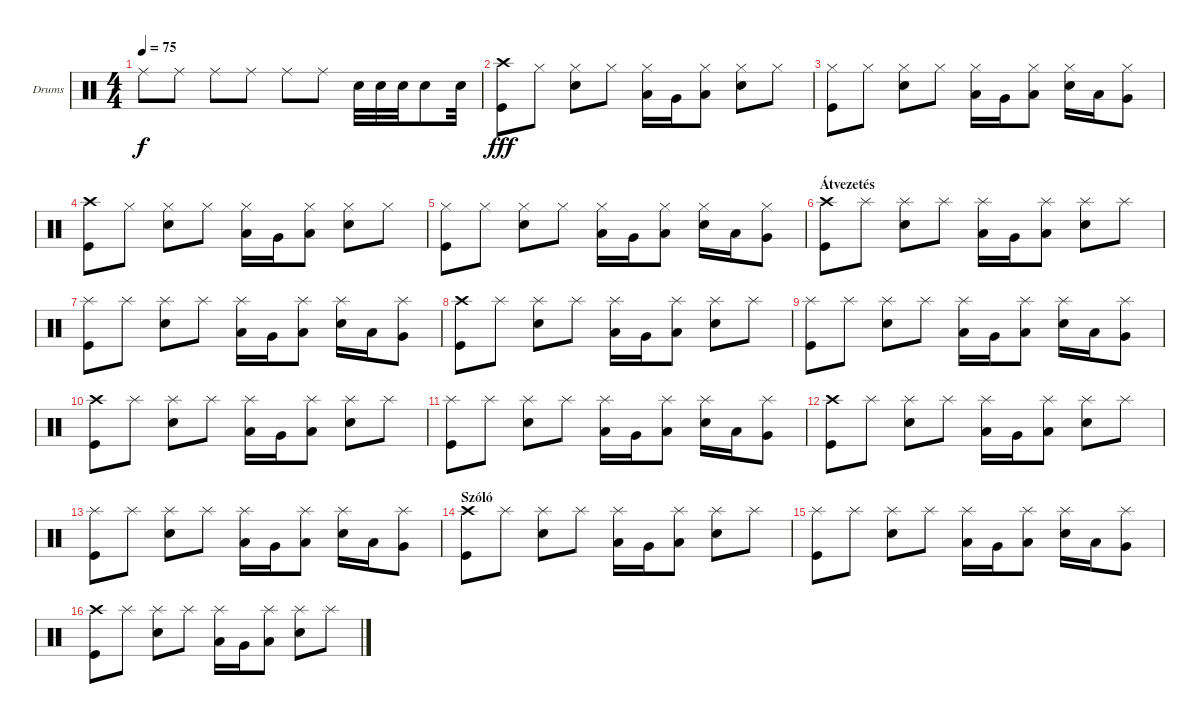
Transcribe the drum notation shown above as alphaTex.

\defaultSystemsLayout 4
\bracketExtendMode groupsimilarinstruments
\firstSystemTrackNameOrientation horizontal
\otherSystemsTrackNameOrientation horizontal
\track ("Craig Nunenmacher" "Drums") {instrument percussion}
\staff {score}
\articulation defaults
\ts (4 4)
\tempo 75
\clef neutral
\ks c "Ride (middle)".8{dy f} "Ride (middle)".8 "Ride (middle)".8 "Ride (middle)".8 "Ride (middle)".8 "Ride (middle)".8 "Snare (hit) 2".32 "Snare (hit) 2".32 "Snare (hit) 2".32 "Snare (hit) 2".8 "Snare (hit) 2".32
|
("Kick (hit)" "Crash high (hit)").8{dy fff} "Hi-Hat (closed)".8 ("Snare (hit) 2" "Hi-Hat (closed)").8 "Hi-Hat (closed)".8 ("Low Tom (hit)" "Hi-Hat (closed)").16 "Very Low Tom (hit)".16 ("Low Tom (hit)" "Hi-Hat (closed)").8 ("Snare (hit) 2" "Hi-Hat (closed)").8 "Hi-Hat (closed)".8 |
("Kick (hit)" "Hi-Hat (closed)").8 "Hi-Hat (closed)".8 ("Snare (hit) 2" "Hi-Hat (closed)").8 "Hi-Hat (closed)".8 ("Low Tom (hit)" "Hi-Hat (closed)").16 "Very Low Tom (hit)".16 ("Low Tom (hit)" "Hi-Hat (closed)").8 ("Snare (hit) 2" "Hi-Hat (closed)").16 "Low Tom (hit)".16 ("Very Low Tom (hit)" "Hi-Hat (closed)").8 |
("Kick (hit)" "Crash high (hit)").8 "Hi-Hat (closed)".8 ("Snare (hit) 2" "Hi-Hat (closed)").8 "Hi-Hat (closed)".8 ("Low Tom (hit)" "Hi-Hat (closed)").16 "Very Low Tom (hit)".16 ("Low Tom (hit)" "Hi-Hat (closed)").8 ("Snare (hit) 2" "Hi-Hat (closed)").8 "Hi-Hat (closed)".8 |
("Kick (hit)" "Hi-Hat (closed)").8 "Hi-Hat (closed)".8 ("Snare (hit) 2" "Hi-Hat (closed)").8 "Hi-Hat (closed)".8 ("Low Tom (hit)" "Hi-Hat (closed)").16 "Very Low Tom (hit)".16 ("Low Tom (hit)" "Hi-Hat (closed)").8 ("Snare (hit) 2" "Hi-Hat (closed)").16 "Low Tom (hit)".16 ("Very Low Tom (hit)" "Hi-Hat (closed)").8 |
\section ("" "Átvezetés")
("Kick (hit)" "Crash high (hit)").8 "Splash (hit)".8 ("Snare (hit) 2" "Splash (hit)").8 "Splash (hit)".8 ("Low Tom (hit)" "Splash (hit)").16 "Very Low Tom (hit)".16 ("Low Tom (hit)" "Splash (hit)").8 ("Snare (hit) 2" "Splash (hit)").8 "Splash (hit)".8 |
("Kick (hit)" "Splash (hit)").8 "Splash (hit)".8 ("Snare (hit) 2" "Splash (hit)").8 "Splash (hit)".8 ("Low Tom (hit)" "Splash (hit)").16 "Very Low Tom (hit)".16 ("Low Tom (hit)" "Splash (hit)").8 ("Snare (hit) 2" "Splash (hit)").16 "Low Tom (hit)".16 ("Very Low Tom (hit)" "Splash (hit)").8 |
("Kick (hit)" "Crash high (hit)").8 "Splash (hit)".8 ("Snare (hit) 2" "Splash (hit)").8 "Splash (hit)".8 ("Low Tom (hit)" "Splash (hit)").16 "Very Low Tom (hit)".16 ("Low Tom (hit)" "Splash (hit)").8 ("Snare (hit) 2" "Splash (hit)").8 "Splash (hit)".8 |
("Kick (hit)" "Splash (hit)").8 "Splash (hit)".8 ("Snare (hit) 2" "Splash (hit)").8 "Splash (hit)".8 ("Low Tom (hit)" "Splash (hit)").16 "Very Low Tom (hit)".16 ("Low Tom (hit)" "Splash (hit)").8 ("Snare (hit) 2" "Splash (hit)").16 "Low Tom (hit)".16 ("Very Low Tom (hit)" "Splash (hit)").8 |
("Kick (hit)" "Crash high (hit)").8 "Splash (hit)".8 ("Snare (hit) 2" "Splash (hit)").8 "Splash (hit)".8 ("Low Tom (hit)" "Splash (hit)").16 "Very Low Tom (hit)".16 ("Low Tom (hit)" "Splash (hit)").8 ("Snare (hit) 2" "Splash (hit)").8 "Splash (hit)".8 |
("Kick (hit)" "Splash (hit)").8 "Splash (hit)".8 ("Snare (hit) 2" "Splash (hit)").8 "Splash (hit)".8 ("Low Tom (hit)" "Splash (hit)").16 "Very Low Tom (hit)".16 ("Low Tom (hit)" "Splash (hit)").8 ("Snare (hit) 2" "Splash (hit)").16 "Low Tom (hit)".16 ("Very Low Tom (hit)" "Splash (hit)").8 |
("Kick (hit)" "Crash high (hit)").8 "Splash (hit)".8 ("Snare (hit) 2" "Splash (hit)").8 "Splash (hit)".8 ("Low Tom (hit)" "Splash (hit)").16 "Very Low Tom (hit)".16 ("Low Tom (hit)" "Splash (hit)").8 ("Snare (hit) 2" "Splash (hit)").8 "Splash (hit)".8 |
("Kick (hit)" "Splash (hit)").8 "Splash (hit)".8 ("Snare (hit) 2" "Splash (hit)").8 "Splash (hit)".8 ("Low Tom (hit)" "Splash (hit)").16 "Very Low Tom (hit)".16 ("Low Tom (hit)" "Splash (hit)").8 ("Snare (hit) 2" "Splash (hit)").16 "Low Tom (hit)".16 ("Very Low Tom (hit)" "Splash (hit)").8 |
\section ("" "Szóló")
("Kick (hit)" "Crash high (hit)").8 "Splash (hit)".8 ("Snare (hit) 2" "Splash (hit)").8 "Splash (hit)".8 ("Low Tom (hit)" "Splash (hit)").16 "Very Low Tom (hit)".16 ("Low Tom (hit)" "Splash (hit)").8 ("Snare (hit) 2" "Splash (hit)").8 "Splash (hit)".8 |
("Kick (hit)" "Splash (hit)").8 "Splash (hit)".8 ("Snare (hit) 2" "Splash (hit)").8 "Splash (hit)".8 ("Low Tom (hit)" "Splash (hit)").16 "Very Low Tom (hit)".16 ("Low Tom (hit)" "Splash (hit)").8 ("Snare (hit) 2" "Splash (hit)").16 "Low Tom (hit)".16 ("Very Low Tom (hit)" "Splash (hit)").8 |
("Kick (hit)" "Crash high (hit)").8 "Splash (hit)".8 ("Snare (hit) 2" "Splash (hit)").8 "Splash (hit)".8 ("Low Tom (hit)" "Splash (hit)").16 "Very Low Tom (hit)".16 ("Low Tom (hit)" "Splash (hit)").8 ("Snare (hit) 2" "Splash (hit)").8 "Splash (hit)".8
